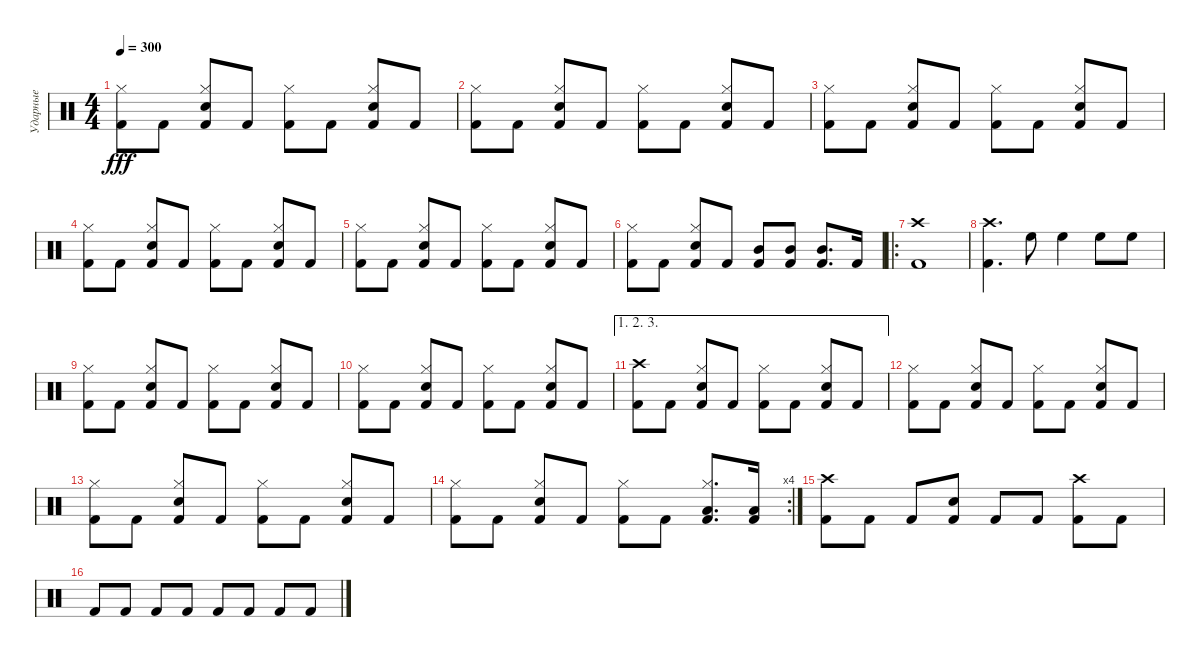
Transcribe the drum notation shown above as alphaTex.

\track ("Ударные" "Ударные") {instrument percussion}
\staff {score}
\articulation defaults
\ts (4 4)
\tempo 300
\clef neutral
\ks c
("Kick (hit) 2" "Hi-Hat (closed)").8{dy fff} "Kick (hit) 2".8 ("Kick (hit) 2" "Snare (hit) 2" "Hi-Hat (closed)").8 "Kick (hit) 2".8 ("Kick (hit) 2" "Hi-Hat (closed)").8 "Kick (hit) 2".8 ("Kick (hit) 2" "Snare (hit) 2" "Hi-Hat (closed)").8 "Kick (hit) 2".8 |
("Kick (hit) 2" "Hi-Hat (closed)").8 "Kick (hit) 2".8 ("Kick (hit) 2" "Snare (hit) 2" "Hi-Hat (closed)").8 "Kick (hit) 2".8 ("Kick (hit) 2" "Hi-Hat (closed)").8 "Kick (hit) 2".8 ("Kick (hit) 2" "Snare (hit) 2" "Hi-Hat (closed)").8 "Kick (hit) 2".8 |
("Kick (hit) 2" "Hi-Hat (closed)").8 "Kick (hit) 2".8 ("Kick (hit) 2" "Snare (hit) 2" "Hi-Hat (closed)").8 "Kick (hit) 2".8 ("Kick (hit) 2" "Hi-Hat (closed)").8 "Kick (hit) 2".8 ("Kick (hit) 2" "Snare (hit) 2" "Hi-Hat (closed)").8 "Kick (hit) 2".8 |
("Kick (hit) 2" "Hi-Hat (closed)").8 "Kick (hit) 2".8 ("Kick (hit) 2" "Snare (hit) 2" "Hi-Hat (closed)").8 "Kick (hit) 2".8 ("Kick (hit) 2" "Hi-Hat (closed)").8 "Kick (hit) 2".8 ("Kick (hit) 2" "Snare (hit) 2" "Hi-Hat (closed)").8 "Kick (hit) 2".8 |
("Kick (hit) 2" "Hi-Hat (closed)").8 "Kick (hit) 2".8 ("Kick (hit) 2" "Snare (hit) 2" "Hi-Hat (closed)").8 "Kick (hit) 2".8 ("Kick (hit) 2" "Hi-Hat (closed)").8 "Kick (hit) 2".8 ("Kick (hit) 2" "Snare (hit) 2" "Hi-Hat (closed)").8 "Kick (hit) 2".8 |
("Kick (hit) 2" "Hi-Hat (closed)").8 "Kick (hit) 2".8 ("Kick (hit) 2" "Snare (hit) 2" "Hi-Hat (closed)").8 "Kick (hit) 2".8 ("Kick (hit) 2" "Mid Tom (hit)").8 ("Kick (hit) 2" "Mid Tom (hit)").8 ("Kick (hit) 2" "Mid Tom (hit)").8{d} "Kick (hit) 2".16 |
\ro
("Kick (hit) 2" "Crash high (hit)").1 |
("Kick (hit) 2" "Crash high (hit)").4{d} "High Floor Tom (hit)".8 "High Floor Tom (hit)".4 "High Floor Tom (hit)".8 "High Floor Tom (hit)".8 |
("Kick (hit) 2" "Hi-Hat (closed)").8 "Kick (hit) 2".8 ("Kick (hit) 2" "Snare (hit) 2" "Hi-Hat (closed)").8 "Kick (hit) 2".8 ("Kick (hit) 2" "Hi-Hat (closed)").8 "Kick (hit) 2".8 ("Kick (hit) 2" "Snare (hit) 2" "Hi-Hat (closed)").8 "Kick (hit) 2".8 |
("Kick (hit) 2" "Hi-Hat (closed)").8 "Kick (hit) 2".8 ("Kick (hit) 2" "Snare (hit) 2" "Hi-Hat (closed)").8 "Kick (hit) 2".8 ("Kick (hit) 2" "Hi-Hat (closed)").8 "Kick (hit) 2".8 ("Kick (hit) 2" "Snare (hit) 2" "Hi-Hat (closed)").8 "Kick (hit) 2".8 |
\ae (1 2 3)
("Kick (hit) 2" "Crash high (hit)").8 "Kick (hit) 2".8 ("Kick (hit) 2" "Snare (hit) 2" "Hi-Hat (closed)").8 "Kick (hit) 2".8 ("Kick (hit) 2" "Hi-Hat (closed)").8 "Kick (hit) 2".8 ("Kick (hit) 2" "Snare (hit) 2" "Hi-Hat (closed)").8 "Kick (hit) 2".8 |
("Kick (hit) 2" "Hi-Hat (closed)").8 "Kick (hit) 2".8 ("Kick (hit) 2" "Snare (hit) 2" "Hi-Hat (closed)").8 "Kick (hit) 2".8 ("Kick (hit) 2" "Hi-Hat (closed)").8 "Kick (hit) 2".8 ("Kick (hit) 2" "Snare (hit) 2" "Hi-Hat (closed)").8 "Kick (hit) 2".8 |
("Kick (hit) 2" "Hi-Hat (closed)").8 "Kick (hit) 2".8 ("Kick (hit) 2" "Snare (hit) 2" "Hi-Hat (closed)").8 "Kick (hit) 2".8 ("Kick (hit) 2" "Hi-Hat (closed)").8 "Kick (hit) 2".8 ("Kick (hit) 2" "Snare (hit) 2" "Hi-Hat (closed)").8 "Kick (hit) 2".8 |
\rc 4
("Kick (hit) 2" "Hi-Hat (closed)").8 "Kick (hit) 2".8 ("Kick (hit) 2" "Snare (hit) 2" "Hi-Hat (closed)").8 "Kick (hit) 2".8 ("Kick (hit) 2" "Hi-Hat (closed)").8 "Kick (hit) 2".8 ("Kick (hit) 2" "Low Tom (hit)" "Hi-Hat (closed)").8{d} ("Kick (hit) 2" "Low Tom (hit)").16 |
("Kick (hit) 2" "Crash high (hit)").8 "Kick (hit) 2".8 "Kick (hit) 2".8 ("Kick (hit) 2" "Snare (hit) 2").8 "Kick (hit) 2".8 "Kick (hit) 2".8 ("Kick (hit) 2" "Crash high (hit)").8 "Kick (hit) 2".8 |
"Kick (hit) 2".8 "Kick (hit) 2".8 "Kick (hit) 2".8 "Kick (hit) 2".8 "Kick (hit) 2".8 "Kick (hit) 2".8 "Kick (hit) 2".8 "Kick (hit) 2".8
